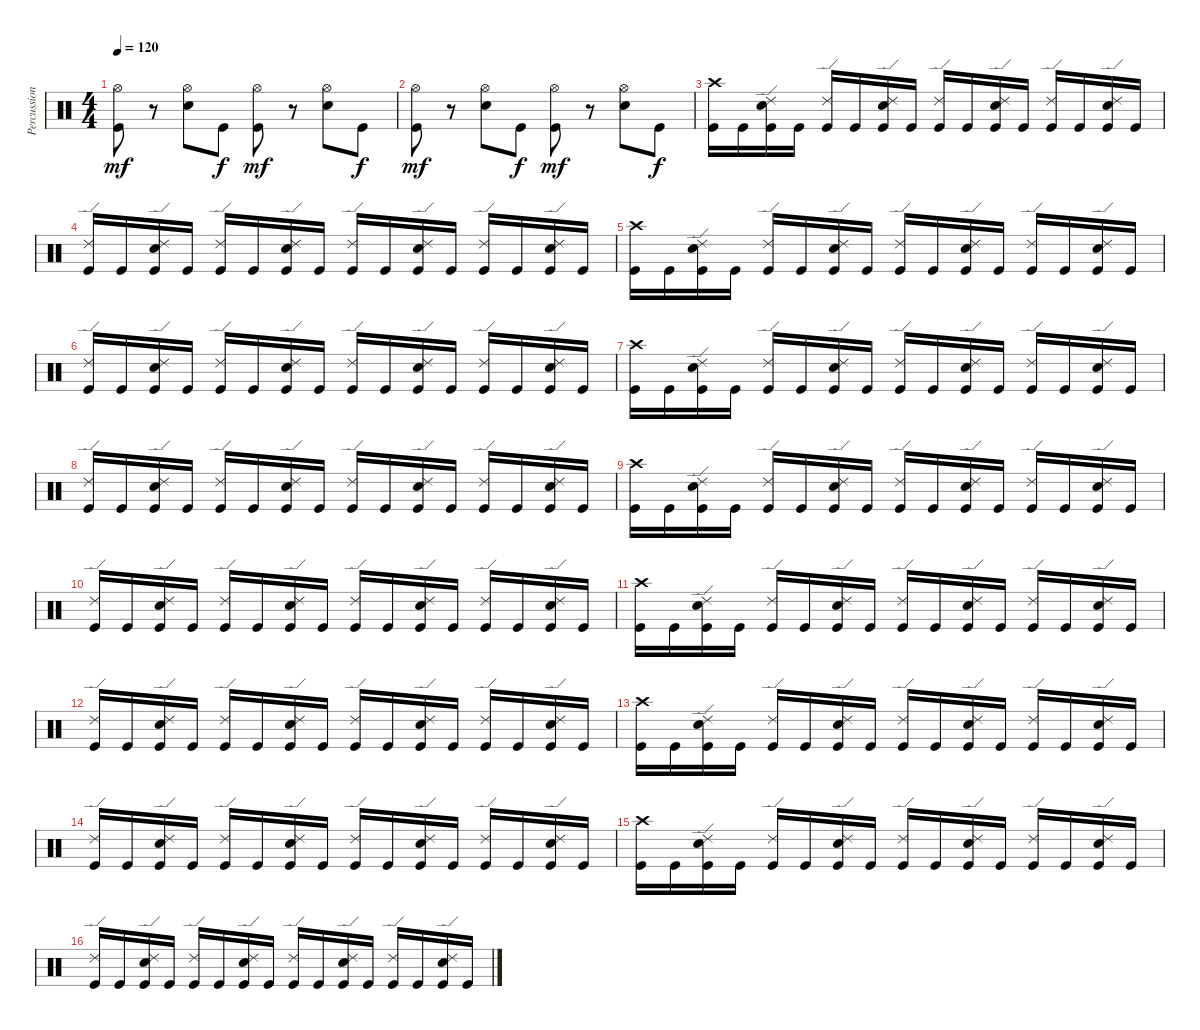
\track ("Percussion(Satish)" "Percussion") {instrument percussion}
\staff {score}
\articulation defaults
\ts (4 4)
\tempo 120
\clef neutral
\ks c
("Hi-Hat (open)" "Kick (hit)").8{dy mf} r.8 ("Hi-Hat (open)" "Electric Snare (hit)").8 "Kick (hit)".8{dy f} ("Hi-Hat (open)" "Kick (hit)").8{dy mf} r.8 ("Hi-Hat (open)" "Electric Snare (hit)").8 "Kick (hit)".8{dy f} |
("Hi-Hat (open)" "Kick (hit)").8{dy mf} r.8 ("Hi-Hat (open)" "Electric Snare (hit)").8 "Kick (hit)".8{dy f} ("Hi-Hat (open)" "Kick (hit)").8{dy mf} r.8 ("Hi-Hat (open)" "Electric Snare (hit)").8 "Kick (hit)".8{dy f} |
("Crash high (hit)" "Kick (hit)").16 "Kick (hit)".16 ("Ride (edge) 2" "Electric Snare (hit)" "Kick (hit)").16 "Kick (hit)".16 ("Ride (edge) 2" "Kick (hit)").16 "Kick (hit)".16 ("Ride (edge) 2" "Electric Snare (hit)" "Kick (hit)").16 "Kick (hit)".16 ("Ride (edge) 2" "Kick (hit)").16 "Kick (hit)".16 ("Ride (edge) 2" "Electric Snare (hit)" "Kick (hit)").16 "Kick (hit)".16 ("Ride (edge) 2" "Kick (hit)").16 "Kick (hit)".16 ("Ride (edge) 2" "Electric Snare (hit)" "Kick (hit)").16 "Kick (hit)".16 |
("Ride (edge) 2" "Kick (hit)").16 "Kick (hit)".16 ("Ride (edge) 2" "Electric Snare (hit)" "Kick (hit)").16 "Kick (hit)".16 ("Ride (edge) 2" "Kick (hit)").16 "Kick (hit)".16 ("Ride (edge) 2" "Electric Snare (hit)" "Kick (hit)").16 "Kick (hit)".16 ("Ride (edge) 2" "Kick (hit)").16 "Kick (hit)".16 ("Ride (edge) 2" "Electric Snare (hit)" "Kick (hit)").16 "Kick (hit)".16 ("Ride (edge) 2" "Kick (hit)").16 "Kick (hit)".16 ("Ride (edge) 2" "Electric Snare (hit)" "Kick (hit)").16 "Kick (hit)".16 |
("Crash high (hit)" "Kick (hit)").16 "Kick (hit)".16 ("Ride (edge) 2" "Electric Snare (hit)" "Kick (hit)").16 "Kick (hit)".16 ("Ride (edge) 2" "Kick (hit)").16 "Kick (hit)".16 ("Ride (edge) 2" "Electric Snare (hit)" "Kick (hit)").16 "Kick (hit)".16 ("Ride (edge) 2" "Kick (hit)").16 "Kick (hit)".16 ("Ride (edge) 2" "Electric Snare (hit)" "Kick (hit)").16 "Kick (hit)".16 ("Ride (edge) 2" "Kick (hit)").16 "Kick (hit)".16 ("Ride (edge) 2" "Electric Snare (hit)" "Kick (hit)").16 "Kick (hit)".16 |
("Ride (edge) 2" "Kick (hit)").16 "Kick (hit)".16 ("Ride (edge) 2" "Electric Snare (hit)" "Kick (hit)").16 "Kick (hit)".16 ("Ride (edge) 2" "Kick (hit)").16 "Kick (hit)".16 ("Ride (edge) 2" "Electric Snare (hit)" "Kick (hit)").16 "Kick (hit)".16 ("Ride (edge) 2" "Kick (hit)").16 "Kick (hit)".16 ("Ride (edge) 2" "Electric Snare (hit)" "Kick (hit)").16 "Kick (hit)".16 ("Ride (edge) 2" "Kick (hit)").16 "Kick (hit)".16 ("Ride (edge) 2" "Electric Snare (hit)" "Kick (hit)").16 "Kick (hit)".16 |
("Crash high (hit)" "Kick (hit)").16 "Kick (hit)".16 ("Ride (edge) 2" "Electric Snare (hit)" "Kick (hit)").16 "Kick (hit)".16 ("Ride (edge) 2" "Kick (hit)").16 "Kick (hit)".16 ("Ride (edge) 2" "Electric Snare (hit)" "Kick (hit)").16 "Kick (hit)".16 ("Ride (edge) 2" "Kick (hit)").16 "Kick (hit)".16 ("Ride (edge) 2" "Electric Snare (hit)" "Kick (hit)").16 "Kick (hit)".16 ("Ride (edge) 2" "Kick (hit)").16 "Kick (hit)".16 ("Ride (edge) 2" "Electric Snare (hit)" "Kick (hit)").16 "Kick (hit)".16 |
("Ride (edge) 2" "Kick (hit)").16 "Kick (hit)".16 ("Ride (edge) 2" "Electric Snare (hit)" "Kick (hit)").16 "Kick (hit)".16 ("Ride (edge) 2" "Kick (hit)").16 "Kick (hit)".16 ("Ride (edge) 2" "Electric Snare (hit)" "Kick (hit)").16 "Kick (hit)".16 ("Ride (edge) 2" "Kick (hit)").16 "Kick (hit)".16 ("Ride (edge) 2" "Electric Snare (hit)" "Kick (hit)").16 "Kick (hit)".16 ("Ride (edge) 2" "Kick (hit)").16 "Kick (hit)".16 ("Ride (edge) 2" "Electric Snare (hit)" "Kick (hit)").16 "Kick (hit)".16 |
("Crash high (hit)" "Kick (hit)").16 "Kick (hit)".16 ("Ride (edge) 2" "Electric Snare (hit)" "Kick (hit)").16 "Kick (hit)".16 ("Ride (edge) 2" "Kick (hit)").16 "Kick (hit)".16 ("Ride (edge) 2" "Electric Snare (hit)" "Kick (hit)").16 "Kick (hit)".16 ("Ride (edge) 2" "Kick (hit)").16 "Kick (hit)".16 ("Ride (edge) 2" "Electric Snare (hit)" "Kick (hit)").16 "Kick (hit)".16 ("Ride (edge) 2" "Kick (hit)").16 "Kick (hit)".16 ("Ride (edge) 2" "Electric Snare (hit)" "Kick (hit)").16 "Kick (hit)".16 |
("Ride (edge) 2" "Kick (hit)").16 "Kick (hit)".16 ("Ride (edge) 2" "Electric Snare (hit)" "Kick (hit)").16 "Kick (hit)".16 ("Ride (edge) 2" "Kick (hit)").16 "Kick (hit)".16 ("Ride (edge) 2" "Electric Snare (hit)" "Kick (hit)").16 "Kick (hit)".16 ("Ride (edge) 2" "Kick (hit)").16 "Kick (hit)".16 ("Ride (edge) 2" "Electric Snare (hit)" "Kick (hit)").16 "Kick (hit)".16 ("Ride (edge) 2" "Kick (hit)").16 "Kick (hit)".16 ("Ride (edge) 2" "Electric Snare (hit)" "Kick (hit)").16 "Kick (hit)".16 |
("Crash high (hit)" "Kick (hit)").16 "Kick (hit)".16 ("Ride (edge) 2" "Electric Snare (hit)" "Kick (hit)").16 "Kick (hit)".16 ("Ride (edge) 2" "Kick (hit)").16 "Kick (hit)".16 ("Ride (edge) 2" "Electric Snare (hit)" "Kick (hit)").16 "Kick (hit)".16 ("Ride (edge) 2" "Kick (hit)").16 "Kick (hit)".16 ("Ride (edge) 2" "Electric Snare (hit)" "Kick (hit)").16 "Kick (hit)".16 ("Ride (edge) 2" "Kick (hit)").16 "Kick (hit)".16 ("Ride (edge) 2" "Electric Snare (hit)" "Kick (hit)").16 "Kick (hit)".16 |
("Ride (edge) 2" "Kick (hit)").16 "Kick (hit)".16 ("Ride (edge) 2" "Electric Snare (hit)" "Kick (hit)").16 "Kick (hit)".16 ("Ride (edge) 2" "Kick (hit)").16 "Kick (hit)".16 ("Ride (edge) 2" "Electric Snare (hit)" "Kick (hit)").16 "Kick (hit)".16 ("Ride (edge) 2" "Kick (hit)").16 "Kick (hit)".16 ("Ride (edge) 2" "Electric Snare (hit)" "Kick (hit)").16 "Kick (hit)".16 ("Ride (edge) 2" "Kick (hit)").16 "Kick (hit)".16 ("Ride (edge) 2" "Electric Snare (hit)" "Kick (hit)").16 "Kick (hit)".16 |
("Crash high (hit)" "Kick (hit)").16 "Kick (hit)".16 ("Ride (edge) 2" "Electric Snare (hit)" "Kick (hit)").16 "Kick (hit)".16 ("Ride (edge) 2" "Kick (hit)").16 "Kick (hit)".16 ("Ride (edge) 2" "Electric Snare (hit)" "Kick (hit)").16 "Kick (hit)".16 ("Ride (edge) 2" "Kick (hit)").16 "Kick (hit)".16 ("Ride (edge) 2" "Electric Snare (hit)" "Kick (hit)").16 "Kick (hit)".16 ("Ride (edge) 2" "Kick (hit)").16 "Kick (hit)".16 ("Ride (edge) 2" "Electric Snare (hit)" "Kick (hit)").16 "Kick (hit)".16 |
("Ride (edge) 2" "Kick (hit)").16 "Kick (hit)".16 ("Ride (edge) 2" "Electric Snare (hit)" "Kick (hit)").16 "Kick (hit)".16 ("Ride (edge) 2" "Kick (hit)").16 "Kick (hit)".16 ("Ride (edge) 2" "Electric Snare (hit)" "Kick (hit)").16 "Kick (hit)".16 ("Ride (edge) 2" "Kick (hit)").16 "Kick (hit)".16 ("Ride (edge) 2" "Electric Snare (hit)" "Kick (hit)").16 "Kick (hit)".16 ("Ride (edge) 2" "Kick (hit)").16 "Kick (hit)".16 ("Ride (edge) 2" "Electric Snare (hit)" "Kick (hit)").16 "Kick (hit)".16 |
("Crash high (hit)" "Kick (hit)").16 "Kick (hit)".16 ("Ride (edge) 2" "Electric Snare (hit)" "Kick (hit)").16 "Kick (hit)".16 ("Ride (edge) 2" "Kick (hit)").16 "Kick (hit)".16 ("Ride (edge) 2" "Electric Snare (hit)" "Kick (hit)").16 "Kick (hit)".16 ("Ride (edge) 2" "Kick (hit)").16 "Kick (hit)".16 ("Ride (edge) 2" "Electric Snare (hit)" "Kick (hit)").16 "Kick (hit)".16 ("Ride (edge) 2" "Kick (hit)").16 "Kick (hit)".16 ("Ride (edge) 2" "Electric Snare (hit)" "Kick (hit)").16 "Kick (hit)".16 |
("Ride (edge) 2" "Kick (hit)").16 "Kick (hit)".16 ("Ride (edge) 2" "Electric Snare (hit)" "Kick (hit)").16 "Kick (hit)".16 ("Ride (edge) 2" "Kick (hit)").16 "Kick (hit)".16 ("Ride (edge) 2" "Electric Snare (hit)" "Kick (hit)").16 "Kick (hit)".16 ("Ride (edge) 2" "Kick (hit)").16 "Kick (hit)".16 ("Ride (edge) 2" "Electric Snare (hit)" "Kick (hit)").16 "Kick (hit)".16 ("Ride (edge) 2" "Kick (hit)").16 "Kick (hit)".16 ("Ride (edge) 2" "Electric Snare (hit)" "Kick (hit)").16 "Kick (hit)".16
